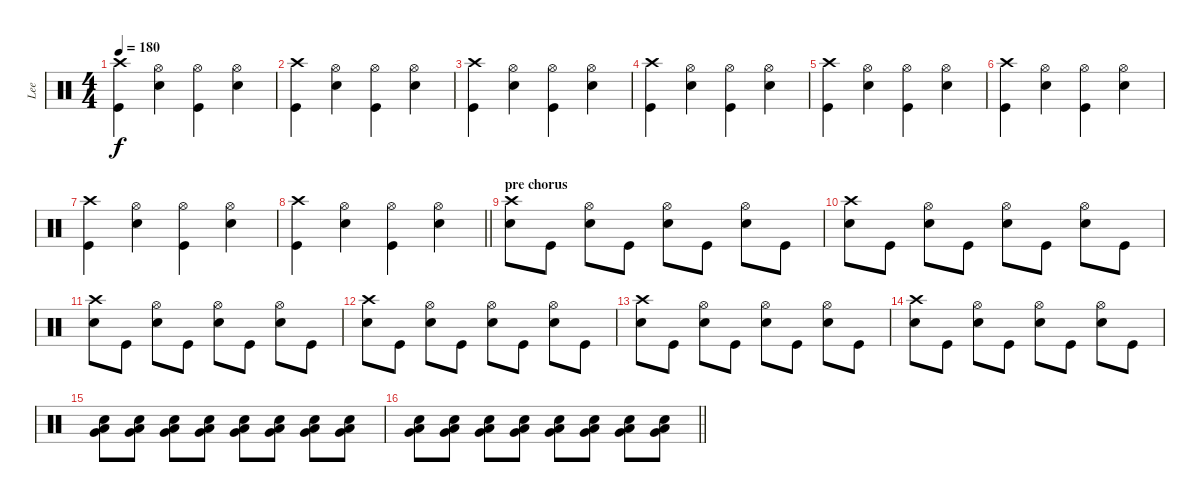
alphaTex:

\track ("Lee" "Lee") {instrument percussion}
\staff {score}
\articulation defaults
\ts (4 4)
\tempo 180
\clef neutral
\ks c
("Kick (hit)" "Crash high (hit)").4{dy f} ("Snare (hit) 2" "Hi-Hat (open)").4 ("Kick (hit)" "Hi-Hat (open)").4 ("Snare (hit) 2" "Hi-Hat (open)").4 |
("Kick (hit)" "Crash high (hit)").4 ("Snare (hit) 2" "Hi-Hat (open)").4 ("Kick (hit)" "Hi-Hat (open)").4 ("Snare (hit) 2" "Hi-Hat (open)").4 |
("Kick (hit)" "Crash high (hit)").4 ("Snare (hit) 2" "Hi-Hat (open)").4 ("Kick (hit)" "Hi-Hat (open)").4 ("Snare (hit) 2" "Hi-Hat (open)").4 |
("Kick (hit)" "Crash high (hit)").4 ("Snare (hit) 2" "Hi-Hat (open)").4 ("Kick (hit)" "Hi-Hat (open)").4 ("Snare (hit) 2" "Hi-Hat (open)").4 |
("Kick (hit)" "Crash high (hit)").4 ("Snare (hit) 2" "Hi-Hat (open)").4 ("Kick (hit)" "Hi-Hat (open)").4 ("Snare (hit) 2" "Hi-Hat (open)").4 |
("Kick (hit)" "Crash high (hit)").4 ("Snare (hit) 2" "Hi-Hat (open)").4 ("Kick (hit)" "Hi-Hat (open)").4 ("Snare (hit) 2" "Hi-Hat (open)").4 |
("Kick (hit)" "Crash high (hit)").4 ("Snare (hit) 2" "Hi-Hat (open)").4 ("Kick (hit)" "Hi-Hat (open)").4 ("Snare (hit) 2" "Hi-Hat (open)").4 |
\barLineRight lightlight
("Kick (hit)" "Crash high (hit)").4 ("Snare (hit) 2" "Hi-Hat (open)").4 ("Kick (hit)" "Hi-Hat (open)").4 ("Snare (hit) 2" "Hi-Hat (open)").4 |
\section ("" "pre chorus")
("Snare (hit) 2" "Crash high (hit)").8 "Kick (hit)".8 ("Snare (hit) 2" "Hi-Hat (open)").8 "Kick (hit)".8 ("Snare (hit) 2" "Hi-Hat (open)").8 "Kick (hit)".8 ("Snare (hit) 2" "Hi-Hat (open)").8 "Kick (hit)".8 |
("Snare (hit) 2" "Crash high (hit)").8 "Kick (hit)".8 ("Snare (hit) 2" "Hi-Hat (open)").8 "Kick (hit)".8 ("Snare (hit) 2" "Hi-Hat (open)").8 "Kick (hit)".8 ("Snare (hit) 2" "Hi-Hat (open)").8 "Kick (hit)".8 |
("Snare (hit) 2" "Crash high (hit)").8 "Kick (hit)".8 ("Snare (hit) 2" "Hi-Hat (open)").8 "Kick (hit)".8 ("Snare (hit) 2" "Hi-Hat (open)").8 "Kick (hit)".8 ("Snare (hit) 2" "Hi-Hat (open)").8 "Kick (hit)".8 |
("Snare (hit) 2" "Crash high (hit)").8 "Kick (hit)".8 ("Snare (hit) 2" "Hi-Hat (open)").8 "Kick (hit)".8 ("Snare (hit) 2" "Hi-Hat (open)").8 "Kick (hit)".8 ("Snare (hit) 2" "Hi-Hat (open)").8 "Kick (hit)".8 |
("Snare (hit) 2" "Crash high (hit)").8 "Kick (hit)".8 ("Snare (hit) 2" "Hi-Hat (open)").8 "Kick (hit)".8 ("Snare (hit) 2" "Hi-Hat (open)").8 "Kick (hit)".8 ("Snare (hit) 2" "Hi-Hat (open)").8 "Kick (hit)".8 |
("Snare (hit) 2" "Crash high (hit)").8 "Kick (hit)".8 ("Snare (hit) 2" "Hi-Hat (open)").8 "Kick (hit)".8 ("Snare (hit) 2" "Hi-Hat (open)").8 "Kick (hit)".8 ("Snare (hit) 2" "Hi-Hat (open)").8 "Kick (hit)".8 |
("Very Low Tom (hit)" "Low Floor Tom (hit)" "Snare (hit) 2").8 ("Very Low Tom (hit)" "Low Floor Tom (hit)" "Snare (hit) 2").8 ("Very Low Tom (hit)" "Low Floor Tom (hit)" "Snare (hit) 2").8 ("Very Low Tom (hit)" "Low Floor Tom (hit)" "Snare (hit) 2").8 ("Very Low Tom (hit)" "Low Floor Tom (hit)" "Snare (hit) 2").8 ("Very Low Tom (hit)" "Low Floor Tom (hit)" "Snare (hit) 2").8 ("Very Low Tom (hit)" "Low Floor Tom (hit)" "Snare (hit) 2").8 ("Very Low Tom (hit)" "Low Floor Tom (hit)" "Snare (hit) 2").8 |
\barLineRight lightlight
("Very Low Tom (hit)" "Low Floor Tom (hit)" "Snare (hit) 2").8 ("Very Low Tom (hit)" "Low Floor Tom (hit)" "Snare (hit) 2").8 ("Very Low Tom (hit)" "Low Floor Tom (hit)" "Snare (hit) 2").8 ("Very Low Tom (hit)" "Low Floor Tom (hit)" "Snare (hit) 2").8 ("Very Low Tom (hit)" "Low Floor Tom (hit)" "Snare (hit) 2").8 ("Very Low Tom (hit)" "Low Floor Tom (hit)" "Snare (hit) 2").8 ("Very Low Tom (hit)" "Low Floor Tom (hit)" "Snare (hit) 2").8 ("Very Low Tom (hit)" "Low Floor Tom (hit)" "Snare (hit) 2").8
